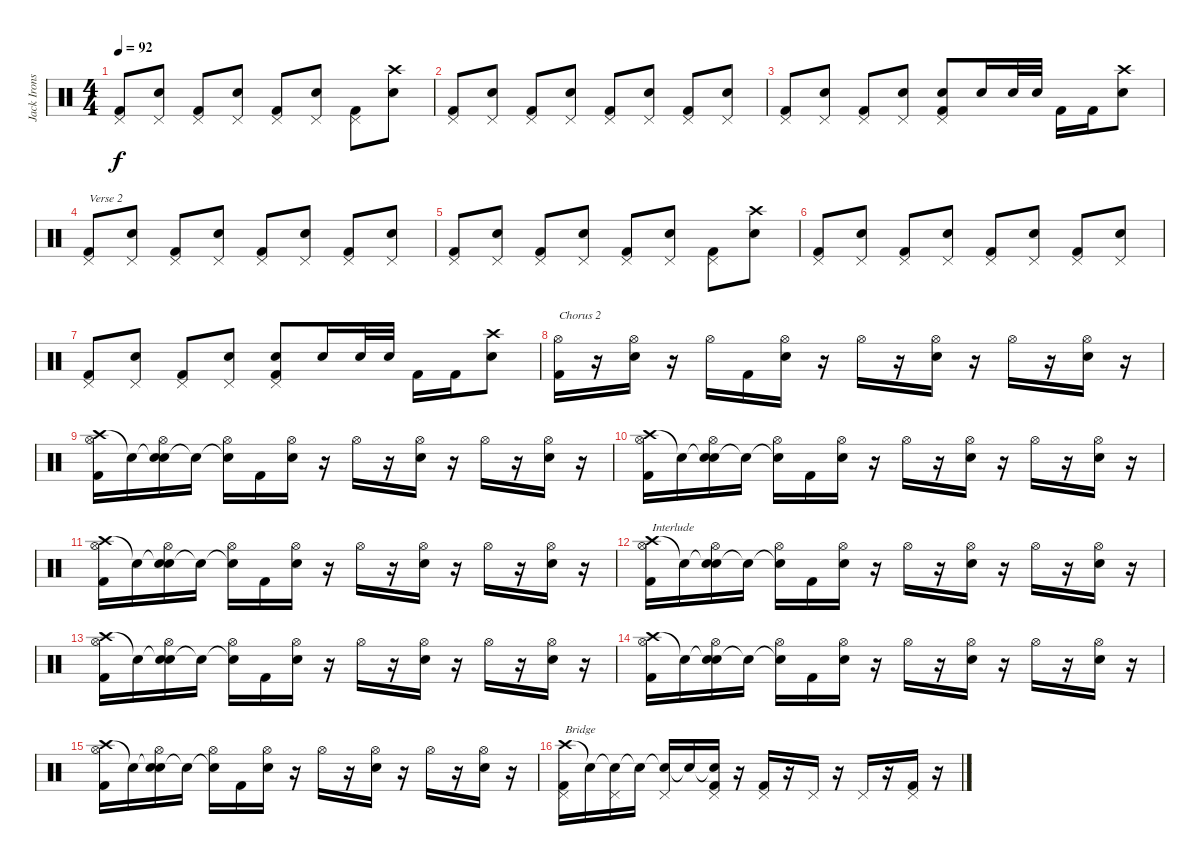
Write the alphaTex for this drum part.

\track ("Jack Irons" "Jack Irons") {instrument percussion}
\staff {score}
\articulation defaults
\ts (4 4)
\tempo 92
\clef neutral
\ks c
("Pedal Hi-Hat (hit)" "Kick (hit) 2").8{dy f} ("Pedal Hi-Hat (hit)" "Snare (hit) 2").8 ("Pedal Hi-Hat (hit)" "Kick (hit) 2").8 ("Pedal Hi-Hat (hit)" "Snare (hit) 2").8 ("Pedal Hi-Hat (hit)" "Kick (hit) 2").8 ("Pedal Hi-Hat (hit)" "Snare (hit) 2").8 ("Pedal Hi-Hat (hit)" "Kick (hit) 2").8 ("Crash high (hit)" "Snare (hit) 2").8 |
("Pedal Hi-Hat (hit)" "Kick (hit) 2").8 ("Pedal Hi-Hat (hit)" "Snare (hit) 2").8 ("Pedal Hi-Hat (hit)" "Kick (hit) 2").8 ("Pedal Hi-Hat (hit)" "Snare (hit) 2").8 ("Pedal Hi-Hat (hit)" "Kick (hit) 2").8 ("Pedal Hi-Hat (hit)" "Snare (hit) 2").8 ("Pedal Hi-Hat (hit)" "Kick (hit) 2").8 ("Pedal Hi-Hat (hit)" "Snare (hit) 2").8 |
("Pedal Hi-Hat (hit)" "Kick (hit) 2").8 ("Pedal Hi-Hat (hit)" "Snare (hit) 2").8 ("Pedal Hi-Hat (hit)" "Kick (hit) 2").8 ("Pedal Hi-Hat (hit)" "Snare (hit) 2").8 ("Pedal Hi-Hat (hit)" "Snare (hit) 2" "Kick (hit) 2").8 "Snare (hit) 2".16 "Snare (hit) 2".32 "Snare (hit) 2".32 "Kick (hit) 2".16 "Kick (hit) 2".16 ("Crash high (hit)" "Snare (hit) 2").8 |
("Pedal Hi-Hat (hit)" "Kick (hit) 2").8{txt "Verse 2"} ("Pedal Hi-Hat (hit)" "Snare (hit) 2").8 ("Pedal Hi-Hat (hit)" "Kick (hit) 2").8 ("Pedal Hi-Hat (hit)" "Snare (hit) 2").8 ("Pedal Hi-Hat (hit)" "Kick (hit) 2").8 ("Pedal Hi-Hat (hit)" "Snare (hit) 2").8 ("Pedal Hi-Hat (hit)" "Kick (hit) 2").8 ("Pedal Hi-Hat (hit)" "Snare (hit) 2").8 |
("Pedal Hi-Hat (hit)" "Kick (hit) 2").8 ("Pedal Hi-Hat (hit)" "Snare (hit) 2").8 ("Pedal Hi-Hat (hit)" "Kick (hit) 2").8 ("Pedal Hi-Hat (hit)" "Snare (hit) 2").8 ("Pedal Hi-Hat (hit)" "Kick (hit) 2").8 ("Pedal Hi-Hat (hit)" "Snare (hit) 2").8 ("Pedal Hi-Hat (hit)" "Kick (hit) 2").8 ("Crash high (hit)" "Snare (hit) 2").8 |
("Pedal Hi-Hat (hit)" "Kick (hit) 2").8 ("Pedal Hi-Hat (hit)" "Snare (hit) 2").8 ("Pedal Hi-Hat (hit)" "Kick (hit) 2").8 ("Pedal Hi-Hat (hit)" "Snare (hit) 2").8 ("Pedal Hi-Hat (hit)" "Kick (hit) 2").8 ("Pedal Hi-Hat (hit)" "Snare (hit) 2").8 ("Pedal Hi-Hat (hit)" "Kick (hit) 2").8 ("Pedal Hi-Hat (hit)" "Snare (hit) 2").8 |
("Pedal Hi-Hat (hit)" "Kick (hit) 2").8 ("Pedal Hi-Hat (hit)" "Snare (hit) 2").8 ("Pedal Hi-Hat (hit)" "Kick (hit) 2").8 ("Pedal Hi-Hat (hit)" "Snare (hit) 2").8 ("Pedal Hi-Hat (hit)" "Snare (hit) 2" "Kick (hit) 2").8 "Snare (hit) 2".16 "Snare (hit) 2".32 "Snare (hit) 2".32 "Kick (hit) 2".16 "Kick (hit) 2".16 ("Crash high (hit)" "Snare (hit) 2").8 |
("Hi-Hat (open)" "Kick (hit) 2").16{txt "Chorus 2"} r.16 ("Hi-Hat (open)" "Snare (hit) 2").16 r.16 "Hi-Hat (open)".16 "Kick (hit) 2".16 ("Hi-Hat (open)" "Snare (hit) 2").16 r.16 "Hi-Hat (open)".16 r.16 ("Hi-Hat (open)" "Snare (hit) 2").16 r.16 "Hi-Hat (open)".16 r.16 ("Hi-Hat (open)" "Snare (hit) 2").16 r.16 |
("Crash high (hit)" "Hi-Hat (open)" "Kick (hit) 2").16 "Snare (hit)"{t}.16 ("Snare (hit)"{t} "Hi-Hat (open)" "Snare (hit) 2").16 "Snare (hit)"{t}.16 ("Snare (hit)"{t} "Hi-Hat (open)").16 "Kick (hit) 2".16 ("Hi-Hat (open)" "Snare (hit) 2").16 r.16 "Hi-Hat (open)".16 r.16 ("Hi-Hat (open)" "Snare (hit) 2").16 r.16 "Hi-Hat (open)".16 r.16 ("Hi-Hat (open)" "Snare (hit) 2").16 r.16 |
("Crash high (hit)" "Hi-Hat (open)" "Kick (hit) 2").16 "Snare (hit)"{t}.16 ("Snare (hit)"{t} "Hi-Hat (open)" "Snare (hit) 2").16 "Snare (hit)"{t}.16 ("Snare (hit)"{t} "Hi-Hat (open)").16 "Kick (hit) 2".16 ("Hi-Hat (open)" "Snare (hit) 2").16 r.16 "Hi-Hat (open)".16 r.16 ("Hi-Hat (open)" "Snare (hit) 2").16 r.16 "Hi-Hat (open)".16 r.16 ("Hi-Hat (open)" "Snare (hit) 2").16 r.16 |
("Crash high (hit)" "Hi-Hat (open)" "Kick (hit) 2").16 "Snare (hit)"{t}.16 ("Snare (hit)"{t} "Hi-Hat (open)" "Snare (hit) 2").16 "Snare (hit)"{t}.16 ("Snare (hit)"{t} "Hi-Hat (open)").16 "Kick (hit) 2".16 ("Hi-Hat (open)" "Snare (hit) 2").16 r.16 "Hi-Hat (open)".16 r.16 ("Hi-Hat (open)" "Snare (hit) 2").16 r.16 "Hi-Hat (open)".16 r.16 ("Hi-Hat (open)" "Snare (hit) 2").16 r.16 |
("Crash high (hit)" "Hi-Hat (open)" "Kick (hit) 2").16{txt "Interlude"} "Snare (hit)"{t}.16 ("Snare (hit)"{t} "Hi-Hat (open)" "Snare (hit) 2").16 "Snare (hit)"{t}.16 ("Snare (hit)"{t} "Hi-Hat (open)").16 "Kick (hit) 2".16 ("Hi-Hat (open)" "Snare (hit) 2").16 r.16 "Hi-Hat (open)".16 r.16 ("Hi-Hat (open)" "Snare (hit) 2").16 r.16 "Hi-Hat (open)".16 r.16 ("Hi-Hat (open)" "Snare (hit) 2").16 r.16 |
("Crash high (hit)" "Hi-Hat (open)" "Kick (hit) 2").16 "Snare (hit)"{t}.16 ("Snare (hit)"{t} "Hi-Hat (open)" "Snare (hit) 2").16 "Snare (hit)"{t}.16 ("Snare (hit)"{t} "Hi-Hat (open)").16 "Kick (hit) 2".16 ("Hi-Hat (open)" "Snare (hit) 2").16 r.16 "Hi-Hat (open)".16 r.16 ("Hi-Hat (open)" "Snare (hit) 2").16 r.16 "Hi-Hat (open)".16 r.16 ("Hi-Hat (open)" "Snare (hit) 2").16 r.16 |
("Crash high (hit)" "Hi-Hat (open)" "Kick (hit) 2").16 "Snare (hit)"{t}.16 ("Snare (hit)"{t} "Hi-Hat (open)" "Snare (hit) 2").16 "Snare (hit)"{t}.16 ("Snare (hit)"{t} "Hi-Hat (open)").16 "Kick (hit) 2".16 ("Hi-Hat (open)" "Snare (hit) 2").16 r.16 "Hi-Hat (open)".16 r.16 ("Hi-Hat (open)" "Snare (hit) 2").16 r.16 "Hi-Hat (open)".16 r.16 ("Hi-Hat (open)" "Snare (hit) 2").16 r.16 |
("Crash high (hit)" "Hi-Hat (open)" "Kick (hit) 2").16 "Snare (hit)"{t}.16 ("Snare (hit)"{t} "Hi-Hat (open)" "Snare (hit) 2").16 "Snare (hit)"{t}.16 ("Snare (hit)"{t} "Hi-Hat (open)").16 "Kick (hit) 2".16 ("Hi-Hat (open)" "Snare (hit) 2").16 r.16 "Hi-Hat (open)".16 r.16 ("Hi-Hat (open)" "Snare (hit) 2").16 r.16 "Hi-Hat (open)".16 r.16 ("Hi-Hat (open)" "Snare (hit) 2").16 r.16 |
("Crash high (hit)" "Pedal Hi-Hat (hit)" "Kick (hit) 2").16{txt "Bridge"} "Snare (hit)"{t}.16 ("Snare (hit)"{t} "Pedal Hi-Hat (hit)").16 "Snare (hit)"{t}.16 ("Snare (hit)"{t} "Pedal Hi-Hat (hit)").16 "Snare (hit)"{t}.16 ("Snare (hit)"{t} "Pedal Hi-Hat (hit)" "Kick (hit) 2").16 r.16 ("Pedal Hi-Hat (hit)" "Kick (hit) 2").16 r.16 "Pedal Hi-Hat (hit)".16 r.16 "Pedal Hi-Hat (hit)".16 r.16 ("Pedal Hi-Hat (hit)" "Kick (hit) 2").16 r.16
